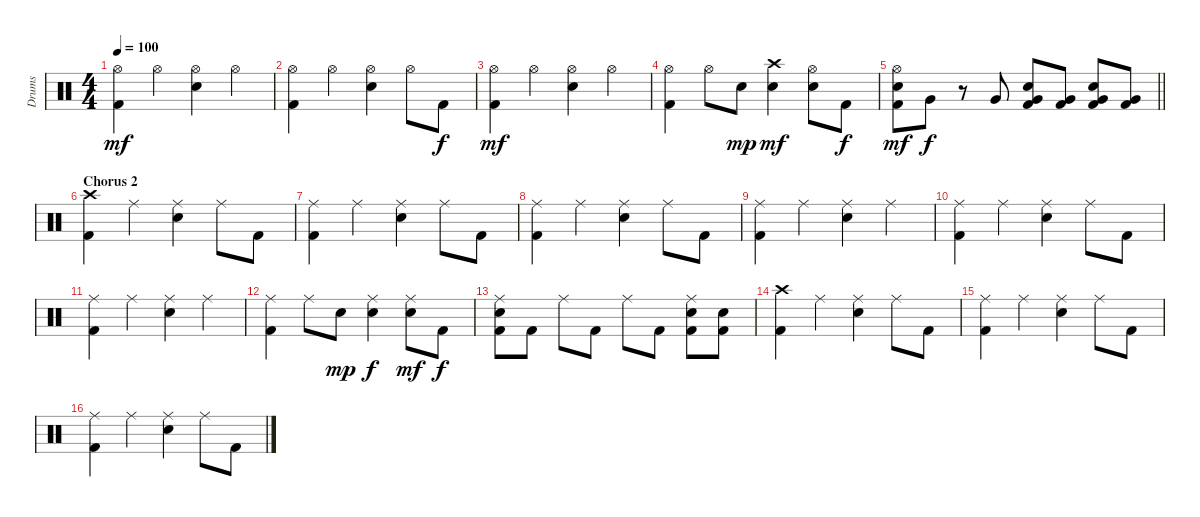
\track ("Drums" "Drums") {instrument percussion}
\staff {score}
\articulation defaults
\ts (4 4)
\tempo 100
\clef neutral
\ks c
("Hi-Hat (open)" "Kick (hit) 2").4{dy mf} "Hi-Hat (open)".4 ("Hi-Hat (open)" "Electric Snare (hit)").4 "Hi-Hat (open)".4 |
("Hi-Hat (open)" "Kick (hit) 2").4 "Hi-Hat (open)".4 ("Hi-Hat (open)" "Electric Snare (hit)").4 "Hi-Hat (open)".8 "Kick (hit) 2".8{dy f} |
("Hi-Hat (open)" "Kick (hit) 2").4{dy mf} "Hi-Hat (open)".4 ("Hi-Hat (open)" "Electric Snare (hit)").4 "Hi-Hat (open)".4 |
("Hi-Hat (open)" "Kick (hit) 2").4 "Hi-Hat (open)".8 "Electric Snare (hit)".8{dy mp} ("Crash high (hit)" "Electric Snare (hit)").4{dy mf} ("Hi-Hat (open)" "Electric Snare (hit)").8 "Kick (hit) 2".8{dy f} |
\barLineRight lightlight
("Hi-Hat (open)" "Electric Snare (hit)" "Kick (hit) 2").8{dy mf} "Very Low Tom (hit)".8{dy f} r.8 "Very Low Tom (hit)".8 ("Very Low Tom (hit)" "Electric Snare (hit)" "Kick (hit) 2").8 ("Very Low Tom (hit)" "Kick (hit) 2").8 ("Very Low Tom (hit)" "Electric Snare (hit)" "Kick (hit) 2").8 ("Very Low Tom (hit)" "Kick (hit) 2").8 |
\section ("" "Chorus 2")
("Crash high (hit)" "Kick (hit) 2").4 "Ride (middle)".4 ("Ride (middle)" "Electric Snare (hit)").4 "Ride (middle)".8 "Kick (hit) 2".8 |
("Ride (middle)" "Kick (hit) 2").4 "Ride (middle)".4 ("Ride (middle)" "Electric Snare (hit)").4 "Ride (middle)".8 "Kick (hit) 2".8 |
("Ride (middle)" "Kick (hit) 2").4 "Ride (middle)".4 ("Ride (middle)" "Electric Snare (hit)").4 "Ride (middle)".8 "Kick (hit) 2".8 |
("Ride (middle)" "Kick (hit) 2").4 "Ride (middle)".4 ("Ride (middle)" "Electric Snare (hit)").4 "Ride (middle)".4 |
("Ride (middle)" "Kick (hit) 2").4 "Ride (middle)".4 ("Ride (middle)" "Electric Snare (hit)").4 "Ride (middle)".8 "Kick (hit) 2".8 |
("Ride (middle)" "Kick (hit) 2").4 "Ride (middle)".4 ("Ride (middle)" "Electric Snare (hit)").4 "Ride (middle)".4 |
("Ride (middle)" "Kick (hit) 2").4 "Ride (middle)".8 "Electric Snare (hit)".8{dy mp} ("Ride (middle)" "Electric Snare (hit)").4{dy f} ("Ride (middle)" "Electric Snare (hit)").8{dy mf} "Kick (hit) 2".8{dy f} |
("Ride (middle)" "Electric Snare (hit)" "Kick (hit) 2").8 "Kick (hit) 2".8 "Ride (middle)".8 "Kick (hit) 2".8 "Ride (middle)".8 "Kick (hit) 2".8 ("Ride (middle)" "Electric Snare (hit)" "Kick (hit) 2").8 ("Electric Snare (hit)" "Kick (hit) 2").8 |
("Crash high (hit)" "Kick (hit) 2").4 "Ride (middle)".4 ("Ride (middle)" "Electric Snare (hit)").4 "Ride (middle)".8 "Kick (hit) 2".8 |
("Ride (middle)" "Kick (hit) 2").4 "Ride (middle)".4 ("Ride (middle)" "Electric Snare (hit)").4 "Ride (middle)".8 "Kick (hit) 2".8 |
("Ride (middle)" "Kick (hit) 2").4 "Ride (middle)".4 ("Ride (middle)" "Electric Snare (hit)").4 "Ride (middle)".8 "Kick (hit) 2".8
